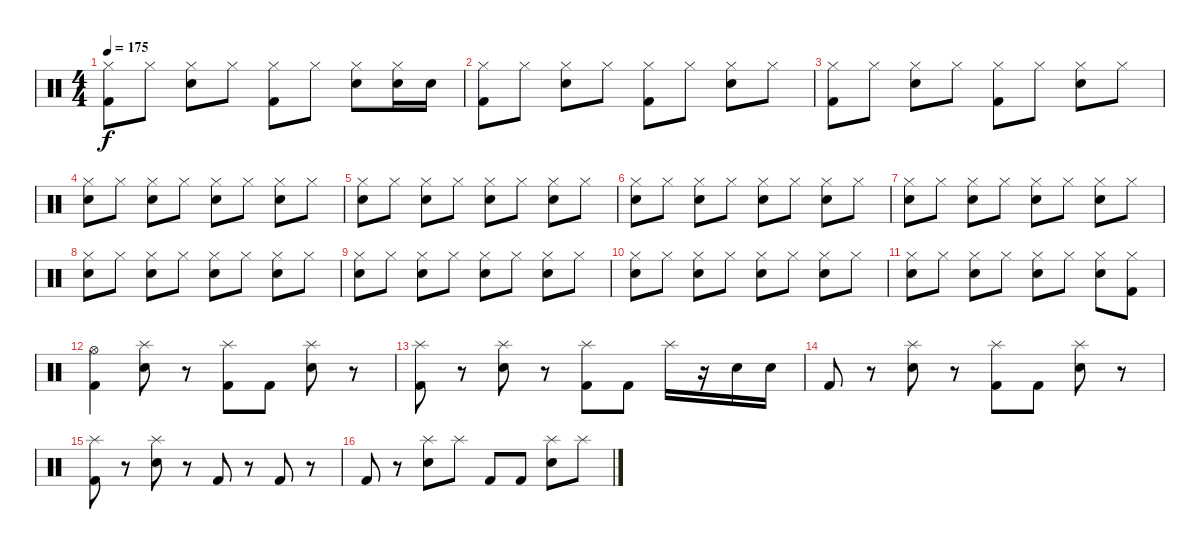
\track "" {instrument percussion}
\staff {score}
\articulation defaults
\ts (4 4)
\tempo 175
\clef neutral
\ks c
("Hi-Hat (closed)" "Kick (hit) 2").8{dy f} "Hi-Hat (closed)".8 ("Hi-Hat (closed)" "Electric Snare (hit)").8 "Hi-Hat (closed)".8 ("Hi-Hat (closed)" "Kick (hit) 2").8 "Hi-Hat (closed)".8 ("Hi-Hat (closed)" "Electric Snare (hit)").8 ("Hi-Hat (closed)" "Electric Snare (hit)").16 "Electric Snare (hit)".16 |
("Hi-Hat (closed)" "Kick (hit) 2").8 "Hi-Hat (closed)".8 ("Hi-Hat (closed)" "Electric Snare (hit)").8 "Hi-Hat (closed)".8 ("Hi-Hat (closed)" "Kick (hit) 2").8 "Hi-Hat (closed)".8 ("Hi-Hat (closed)" "Electric Snare (hit)").8 "Hi-Hat (closed)".8 |
("Hi-Hat (closed)" "Kick (hit) 2").8 "Hi-Hat (closed)".8 ("Hi-Hat (closed)" "Electric Snare (hit)").8 "Hi-Hat (closed)".8 ("Hi-Hat (closed)" "Kick (hit) 2").8 "Hi-Hat (closed)".8 ("Hi-Hat (closed)" "Electric Snare (hit)").8 "Hi-Hat (closed)".8 |
("Hi-Hat (closed)" "Electric Snare (hit)").8 "Hi-Hat (closed)".8 ("Hi-Hat (closed)" "Electric Snare (hit)").8 "Hi-Hat (closed)".8 ("Hi-Hat (closed)" "Electric Snare (hit)").8 "Hi-Hat (closed)".8 ("Hi-Hat (closed)" "Electric Snare (hit)").8 "Hi-Hat (closed)".8 |
("Hi-Hat (closed)" "Electric Snare (hit)").8 "Hi-Hat (closed)".8 ("Hi-Hat (closed)" "Electric Snare (hit)").8 "Hi-Hat (closed)".8 ("Hi-Hat (closed)" "Electric Snare (hit)").8 "Hi-Hat (closed)".8 ("Hi-Hat (closed)" "Electric Snare (hit)").8 "Hi-Hat (closed)".8 |
("Hi-Hat (closed)" "Electric Snare (hit)").8 "Hi-Hat (closed)".8 ("Hi-Hat (closed)" "Electric Snare (hit)").8 "Hi-Hat (closed)".8 ("Hi-Hat (closed)" "Electric Snare (hit)").8 "Hi-Hat (closed)".8 ("Hi-Hat (closed)" "Electric Snare (hit)").8 "Hi-Hat (closed)".8 |
("Hi-Hat (closed)" "Electric Snare (hit)").8 "Hi-Hat (closed)".8 ("Hi-Hat (closed)" "Electric Snare (hit)").8 "Hi-Hat (closed)".8 ("Hi-Hat (closed)" "Electric Snare (hit)").8 "Hi-Hat (closed)".8 ("Hi-Hat (closed)" "Electric Snare (hit)").8 "Hi-Hat (closed)".8 |
("Hi-Hat (closed)" "Electric Snare (hit)").8 "Hi-Hat (closed)".8 ("Hi-Hat (closed)" "Electric Snare (hit)").8 "Hi-Hat (closed)".8 ("Hi-Hat (closed)" "Electric Snare (hit)").8 "Hi-Hat (closed)".8 ("Hi-Hat (closed)" "Electric Snare (hit)").8 "Hi-Hat (closed)".8 |
("Hi-Hat (closed)" "Electric Snare (hit)").8 "Hi-Hat (closed)".8 ("Hi-Hat (closed)" "Electric Snare (hit)").8 "Hi-Hat (closed)".8 ("Hi-Hat (closed)" "Electric Snare (hit)").8 "Hi-Hat (closed)".8 ("Hi-Hat (closed)" "Electric Snare (hit)").8 "Hi-Hat (closed)".8 |
("Hi-Hat (closed)" "Electric Snare (hit)").8 "Hi-Hat (closed)".8 ("Hi-Hat (closed)" "Electric Snare (hit)").8 "Hi-Hat (closed)".8 ("Hi-Hat (closed)" "Electric Snare (hit)").8 "Hi-Hat (closed)".8 ("Hi-Hat (closed)" "Electric Snare (hit)").8 "Hi-Hat (closed)".8 |
("Hi-Hat (closed)" "Electric Snare (hit)").8 "Hi-Hat (closed)".8 ("Hi-Hat (closed)" "Electric Snare (hit)").8 "Hi-Hat (closed)".8 ("Hi-Hat (closed)" "Electric Snare (hit)").8 "Hi-Hat (closed)".8 ("Hi-Hat (closed)" "Electric Snare (hit)").8 ("Kick (hit) 2" "Hi-Hat (closed)").8 |
("Hi-Hat (open)" "Kick (hit) 2").4 ("Splash (hit)" "Electric Snare (hit)").8 r.8 ("Splash (hit)" "Kick (hit) 2").8 "Kick (hit) 2".8 ("Splash (hit)" "Electric Snare (hit)").8 r.8 |
("Splash (hit)" "Kick (hit) 2").8 r.8 ("Splash (hit)" "Electric Snare (hit)").8 r.8 ("Splash (hit)" "Kick (hit) 2").8 "Kick (hit) 2".8 "Splash (hit)".16 r.16 "Electric Snare (hit)".16 "Electric Snare (hit)".16 |
"Kick (hit) 2".8 r.8 ("Splash (hit)" "Electric Snare (hit)").8 r.8 ("Splash (hit)" "Kick (hit) 2").8 "Kick (hit) 2".8 ("Splash (hit)" "Electric Snare (hit)").8 r.8 |
("Splash (hit)" "Kick (hit) 2").8 r.8 ("Splash (hit)" "Electric Snare (hit)").8 r.8 "Kick (hit) 2".8 r.8 "Kick (hit) 2".8 r.8 |
"Kick (hit) 2".8 r.8 ("Splash (hit)" "Electric Snare (hit)").8 "Splash (hit)".8 "Kick (hit) 2".8 "Kick (hit) 2".8 ("Splash (hit)" "Electric Snare (hit)").8 "Splash (hit)".8
